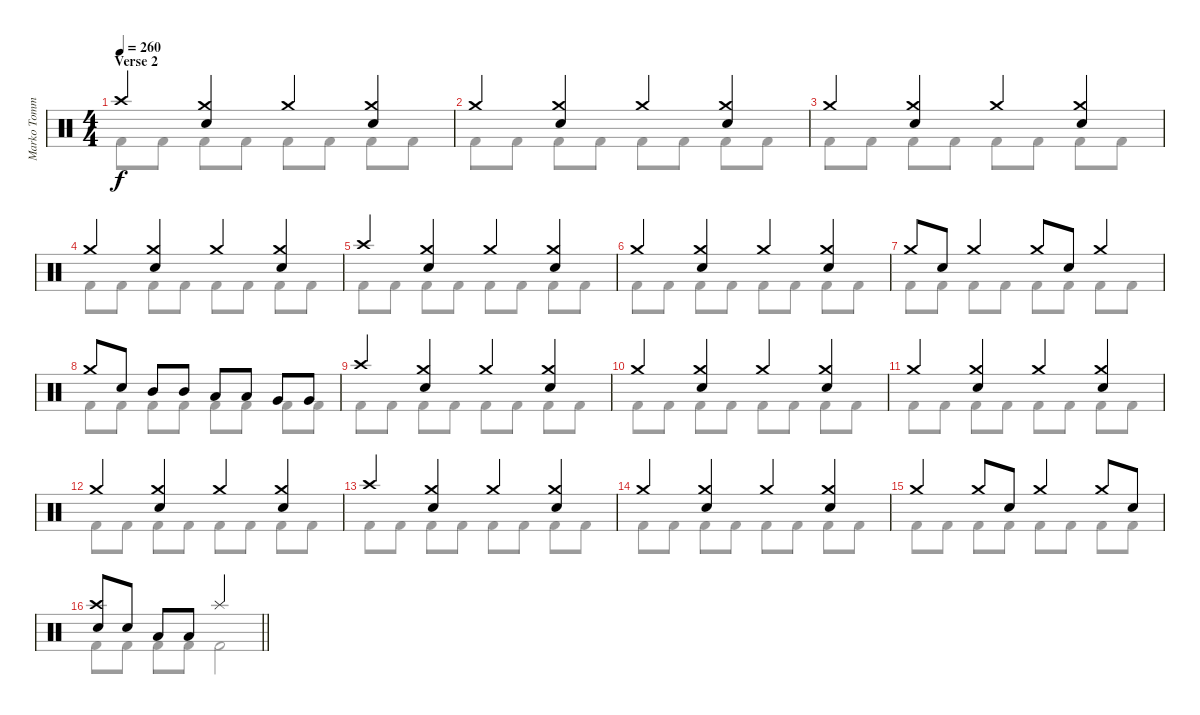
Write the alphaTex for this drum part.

\track ("Marko Tommila (drums)" "Marko Tomm") {instrument percussion}
\staff {score}
\articulation defaults
\voice
\ts (4 4)
\section ("" "Verse 2")
\tempo 260
\clef neutral
\ks aminor "Crash high (hit)".4{dy f}
("Crash medium (hit)" "Electric Snare (hit)").4 "Crash medium (hit)".4 ("Crash medium (hit)" "Electric Snare (hit)").4 |
"Crash medium (hit)".4 ("Crash medium (hit)" "Electric Snare (hit)").4 "Crash medium (hit)".4 ("Crash medium (hit)" "Electric Snare (hit)").4 |
"Crash medium (hit)".4 ("Crash medium (hit)" "Electric Snare (hit)").4 "Crash medium (hit)".4 ("Crash medium (hit)" "Electric Snare (hit)").4 |
"Crash medium (hit)".4 ("Crash medium (hit)" "Electric Snare (hit)").4 "Crash medium (hit)".4 ("Crash medium (hit)" "Electric Snare (hit)").4 |
"Crash high (hit)".4 ("Crash medium (hit)" "Electric Snare (hit)").4 "Crash medium (hit)".4 ("Crash medium (hit)" "Electric Snare (hit)").4 |
"Crash medium (hit)".4 ("Crash medium (hit)" "Electric Snare (hit)").4 "Crash medium (hit)".4 ("Crash medium (hit)" "Electric Snare (hit)").4 |
"Crash medium (hit)".8 "Electric Snare (hit)".8 "Crash medium (hit)".4 "Crash medium (hit)".8 "Electric Snare (hit)".8 "Crash medium (hit)".4 |
"Crash medium (hit)".8 "Electric Snare (hit)".8 "Mid Tom (hit)".8 "Mid Tom (hit)".8 "Low Tom (hit)".8 "Low Tom (hit)".8 "Very Low Tom (hit)".8 "Very Low Tom (hit)".8 |
"Crash high (hit)".4 ("Crash medium (hit)" "Electric Snare (hit)").4 "Crash medium (hit)".4 ("Crash medium (hit)" "Electric Snare (hit)").4 |
"Crash medium (hit)".4 ("Crash medium (hit)" "Electric Snare (hit)").4 "Crash medium (hit)".4 ("Crash medium (hit)" "Electric Snare (hit)").4 |
"Crash medium (hit)".4 ("Crash medium (hit)" "Electric Snare (hit)").4 "Crash medium (hit)".4 ("Crash medium (hit)" "Electric Snare (hit)").4 |
"Crash medium (hit)".4 ("Crash medium (hit)" "Electric Snare (hit)").4 "Crash medium (hit)".4 ("Crash medium (hit)" "Electric Snare (hit)").4 |
"Crash high (hit)".4 ("Crash medium (hit)" "Electric Snare (hit)").4 "Crash medium (hit)".4 ("Crash medium (hit)" "Electric Snare (hit)").4 |
"Crash medium (hit)".4 ("Crash medium (hit)" "Electric Snare (hit)").4 "Crash medium (hit)".4 ("Crash medium (hit)" "Electric Snare (hit)").4 |
"Crash medium (hit)".4 "Crash medium (hit)".8 "Electric Snare (hit)".8 "Crash medium (hit)".4 "Crash medium (hit)".8 "Electric Snare (hit)".8 |
\barLineRight lightlight
("Crash high (hit)" "Electric Snare (hit)").8 "Electric Snare (hit)".8 "Low Tom (hit)".8 "Low Tom (hit)".8 "Splash (hit)".2
\voice
\clef neutral
\ottava regular
\simile none
\ks aminor "Kick (hit) 2".8{dy f} "Kick (hit) 2".8 "Kick (hit) 2".8 "Kick (hit) 2".8 "Kick (hit) 2".8 "Kick (hit) 2".8 "Kick (hit) 2".8 "Kick (hit) 2".8
|
"Kick (hit) 2".8 "Kick (hit) 2".8 "Kick (hit) 2".8 "Kick (hit) 2".8 "Kick (hit) 2".8 "Kick (hit) 2".8 "Kick (hit) 2".8 "Kick (hit) 2".8 |
"Kick (hit) 2".8 "Kick (hit) 2".8 "Kick (hit) 2".8 "Kick (hit) 2".8 "Kick (hit) 2".8 "Kick (hit) 2".8 "Kick (hit) 2".8 "Kick (hit) 2".8 |
"Kick (hit) 2".8 "Kick (hit) 2".8 "Kick (hit) 2".8 "Kick (hit) 2".8 "Kick (hit) 2".8 "Kick (hit) 2".8 "Kick (hit) 2".8 "Kick (hit) 2".8 |
"Kick (hit) 2".8 "Kick (hit) 2".8 "Kick (hit) 2".8 "Kick (hit) 2".8 "Kick (hit) 2".8 "Kick (hit) 2".8 "Kick (hit) 2".8 "Kick (hit) 2".8 |
"Kick (hit) 2".8 "Kick (hit) 2".8 "Kick (hit) 2".8 "Kick (hit) 2".8 "Kick (hit) 2".8 "Kick (hit) 2".8 "Kick (hit) 2".8 "Kick (hit) 2".8 |
"Kick (hit) 2".8 "Kick (hit) 2".8 "Kick (hit) 2".8 "Kick (hit) 2".8 "Kick (hit) 2".8 "Kick (hit) 2".8 "Kick (hit) 2".8 "Kick (hit) 2".8 |
"Kick (hit) 2".8 "Kick (hit) 2".8 "Kick (hit) 2".8 "Kick (hit) 2".8 "Kick (hit) 2".8 "Kick (hit) 2".8 "Kick (hit) 2".8 "Kick (hit) 2".8 |
"Kick (hit) 2".8 "Kick (hit) 2".8 "Kick (hit) 2".8 "Kick (hit) 2".8 "Kick (hit) 2".8 "Kick (hit) 2".8 "Kick (hit) 2".8 "Kick (hit) 2".8 |
"Kick (hit) 2".8 "Kick (hit) 2".8 "Kick (hit) 2".8 "Kick (hit) 2".8 "Kick (hit) 2".8 "Kick (hit) 2".8 "Kick (hit) 2".8 "Kick (hit) 2".8 |
"Kick (hit) 2".8 "Kick (hit) 2".8 "Kick (hit) 2".8 "Kick (hit) 2".8 "Kick (hit) 2".8 "Kick (hit) 2".8 "Kick (hit) 2".8 "Kick (hit) 2".8 |
"Kick (hit) 2".8 "Kick (hit) 2".8 "Kick (hit) 2".8 "Kick (hit) 2".8 "Kick (hit) 2".8 "Kick (hit) 2".8 "Kick (hit) 2".8 "Kick (hit) 2".8 |
"Kick (hit) 2".8 "Kick (hit) 2".8 "Kick (hit) 2".8 "Kick (hit) 2".8 "Kick (hit) 2".8 "Kick (hit) 2".8 "Kick (hit) 2".8 "Kick (hit) 2".8 |
"Kick (hit) 2".8 "Kick (hit) 2".8 "Kick (hit) 2".8 "Kick (hit) 2".8 "Kick (hit) 2".8 "Kick (hit) 2".8 "Kick (hit) 2".8 "Kick (hit) 2".8 |
"Kick (hit) 2".8 "Kick (hit) 2".8 "Kick (hit) 2".8 "Kick (hit) 2".8 "Kick (hit) 2".8 "Kick (hit) 2".8 "Kick (hit) 2".8 "Kick (hit) 2".8 |
\barLineRight lightlight "Kick (hit) 2".8 "Kick (hit) 2".8 "Kick (hit) 2".8 "Kick (hit) 2".8 "Kick (hit) 2".2
